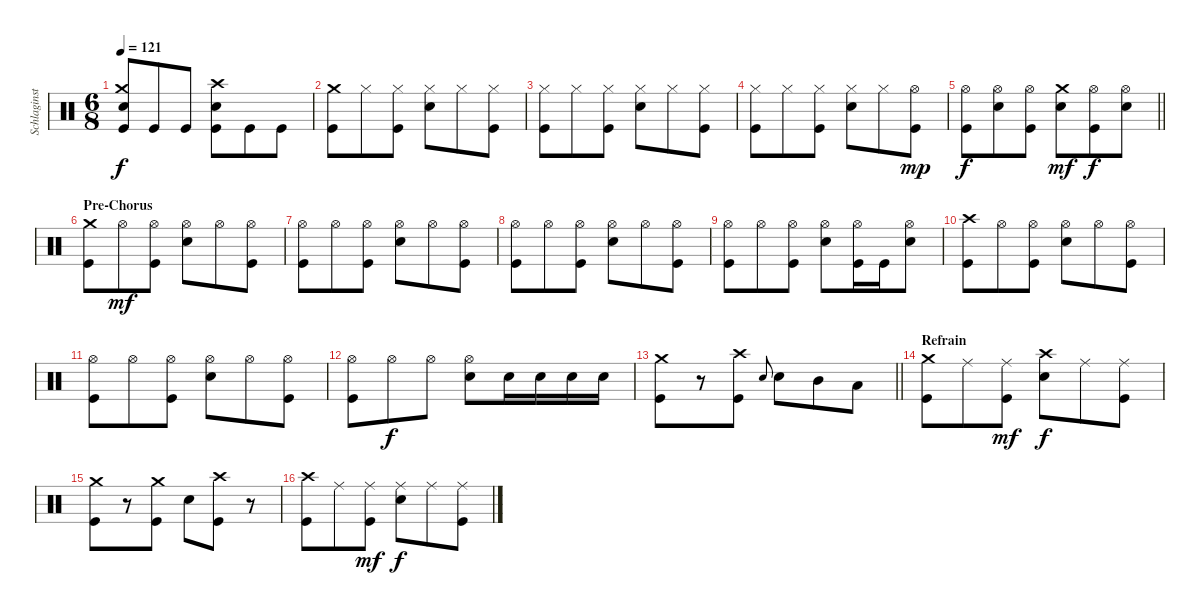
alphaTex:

\track ("Schlaginstrumente - Auswahl" "Schlaginst") {instrument percussion}
\staff {score}
\articulation defaults
\ts (6 8)
\tempo 121
\clef neutral
\ks c
("Kick (hit)" "Crash medium (hit)" "Snare (hit) 2").8{dy f} "Kick (hit)".8 "Kick (hit)".8 ("Crash high (hit)" "Kick (hit)" "Snare (hit) 2").8 "Kick (hit)".8 "Kick (hit)".8 |
("Kick (hit)" "Crash medium (hit)").8 "Hi-Hat (closed)".8 ("Hi-Hat (closed)" "Kick (hit)").8 ("Hi-Hat (closed)" "Snare (hit) 2").8 "Hi-Hat (closed)".8 ("Hi-Hat (closed)" "Kick (hit)").8 |
("Hi-Hat (closed)" "Kick (hit)").8 "Hi-Hat (closed)".8 ("Hi-Hat (closed)" "Kick (hit)").8 ("Hi-Hat (closed)" "Snare (hit) 2").8 "Hi-Hat (closed)".8 ("Hi-Hat (closed)" "Kick (hit)").8 |
("Hi-Hat (closed)" "Kick (hit)").8 "Hi-Hat (closed)".8 ("Hi-Hat (closed)" "Kick (hit)").8 ("Hi-Hat (closed)" "Snare (hit) 2").8 "Hi-Hat (closed)".8 ("Kick (hit)" "Hi-Hat (open)").8{dy mp} |
\barLineRight lightlight
("Hi-Hat (open)" "Kick (hit)").8{dy f} ("Hi-Hat (open)" "Snare (hit) 2").8 ("Hi-Hat (open)" "Kick (hit)").8 ("Crash medium (hit)" "Snare (hit) 2").8{dy mf} ("Hi-Hat (open)" "Kick (hit)").8{dy f} ("Hi-Hat (open)" "Snare (hit) 2").8 |
\section ("" "Pre-Chorus")
("Kick (hit)" "Crash medium (hit)").8 "Hi-Hat (open)".8{dy mf} ("Hi-Hat (open)" "Kick (hit)").8 ("Hi-Hat (open)" "Snare (hit) 2").8 "Hi-Hat (open)".8 ("Hi-Hat (open)" "Kick (hit)").8 |
("Hi-Hat (open)" "Kick (hit)").8 "Hi-Hat (open)".8 ("Hi-Hat (open)" "Kick (hit)").8 ("Hi-Hat (open)" "Snare (hit) 2").8 "Hi-Hat (open)".8 ("Hi-Hat (open)" "Kick (hit)").8 |
("Hi-Hat (open)" "Kick (hit)").8 "Hi-Hat (open)".8 ("Hi-Hat (open)" "Kick (hit)").8 ("Hi-Hat (open)" "Snare (hit) 2").8 "Hi-Hat (open)".8 ("Hi-Hat (open)" "Kick (hit)").8 |
("Hi-Hat (open)" "Kick (hit)").8 "Hi-Hat (open)".8 ("Hi-Hat (open)" "Kick (hit)").8 ("Hi-Hat (open)" "Snare (hit) 2").8 ("Hi-Hat (open)" "Kick (hit)").16 "Kick (hit)".16 ("Snare (hit) 2" "Hi-Hat (open)").8 |
("Crash high (hit)" "Kick (hit)").8 "Hi-Hat (open)".8 ("Hi-Hat (open)" "Kick (hit)").8 ("Hi-Hat (open)" "Snare (hit) 2").8 "Hi-Hat (open)".8 ("Hi-Hat (open)" "Kick (hit)").8 |
("Hi-Hat (open)" "Kick (hit)").8 "Hi-Hat (open)".8 ("Hi-Hat (open)" "Kick (hit)").8 ("Hi-Hat (open)" "Snare (hit) 2").8 "Hi-Hat (open)".8 ("Hi-Hat (open)" "Kick (hit)").8 |
("Hi-Hat (open)" "Kick (hit)").8 "Hi-Hat (open)".8{dy f} "Hi-Hat (open)".8 ("Hi-Hat (open)" "Snare (hit) 2").8 "Snare (hit) 2".16 "Snare (hit) 2".16 "Snare (hit) 2".16 "Snare (hit) 2".16 |
\barLineRight lightlight
("Crash medium (hit)" "Kick (hit)").8 r.8 ("Crash high (hit)" "Kick (hit)").8 "Snare (hit) 2".8{gr onbeat} "Snare (hit) 2".8 "Mid Tom (hit)".8 "Low Tom (hit)".8 |
\section ("" "Refrain")
("Crash medium (hit)" "Kick (hit)").8 "Ride (middle)".8 ("Ride (middle)" "Kick (hit)").8{dy mf} ("Crash high (hit)" "Snare (hit) 2").8{dy f} "Ride (middle)".8 ("Ride (middle)" "Kick (hit)").8 |
("Crash medium (hit)" "Kick (hit)").8 r.8 ("Crash medium (hit)" "Kick (hit)").8 "Snare (hit) 2".8 ("Crash high (hit)" "Kick (hit)").8 r.8 |
("Crash high (hit)" "Kick (hit)").8 "Ride (middle)".8 ("Ride (middle)" "Kick (hit)").8{dy mf} ("Ride (middle)" "Snare (hit) 2").8{dy f} "Ride (middle)".8 ("Ride (middle)" "Kick (hit)").8
